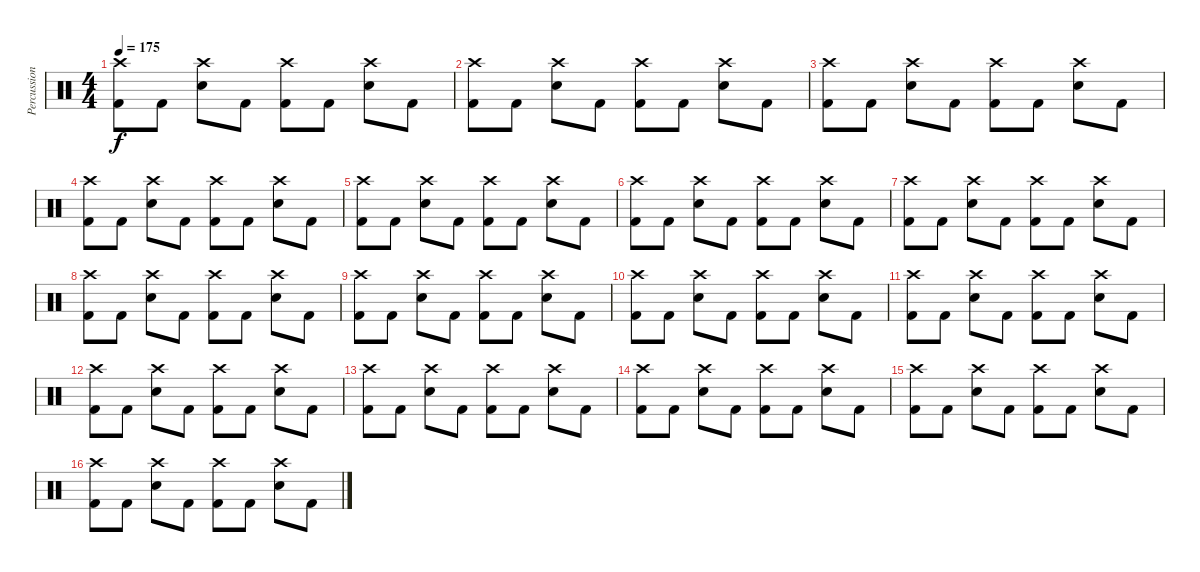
\track ("Percussion" "Percussion") {instrument percussion}
\staff {score}
\articulation defaults
\ts (4 4)
\tempo 175
\clef neutral
\ks c
("Kick (hit) 2" "Crash high (hit)").8{dy f} "Kick (hit) 2".8 ("Electric Snare (hit)" "Crash high (hit)").8 "Kick (hit) 2".8 ("Kick (hit) 2" "Crash high (hit)").8 "Kick (hit) 2".8 ("Electric Snare (hit)" "Crash high (hit)").8 "Kick (hit) 2".8 |
("Kick (hit) 2" "Crash high (hit)").8 "Kick (hit) 2".8 ("Electric Snare (hit)" "Crash high (hit)").8 "Kick (hit) 2".8 ("Kick (hit) 2" "Crash high (hit)").8 "Kick (hit) 2".8 ("Electric Snare (hit)" "Crash high (hit)").8 "Kick (hit) 2".8 |
("Kick (hit) 2" "Crash high (hit)").8 "Kick (hit) 2".8 ("Electric Snare (hit)" "Crash high (hit)").8 "Kick (hit) 2".8 ("Kick (hit) 2" "Crash high (hit)").8 "Kick (hit) 2".8 ("Electric Snare (hit)" "Crash high (hit)").8 "Kick (hit) 2".8 |
("Kick (hit) 2" "Crash high (hit)").8 "Kick (hit) 2".8 ("Electric Snare (hit)" "Crash high (hit)").8 "Kick (hit) 2".8 ("Kick (hit) 2" "Crash high (hit)").8 "Kick (hit) 2".8 ("Electric Snare (hit)" "Crash high (hit)").8 "Kick (hit) 2".8 |
("Kick (hit) 2" "Crash high (hit)").8 "Kick (hit) 2".8 ("Electric Snare (hit)" "Crash high (hit)").8 "Kick (hit) 2".8 ("Kick (hit) 2" "Crash high (hit)").8 "Kick (hit) 2".8 ("Electric Snare (hit)" "Crash high (hit)").8 "Kick (hit) 2".8 |
("Kick (hit) 2" "Crash high (hit)").8 "Kick (hit) 2".8 ("Electric Snare (hit)" "Crash high (hit)").8 "Kick (hit) 2".8 ("Kick (hit) 2" "Crash high (hit)").8 "Kick (hit) 2".8 ("Electric Snare (hit)" "Crash high (hit)").8 "Kick (hit) 2".8 |
("Kick (hit) 2" "Crash high (hit)").8 "Kick (hit) 2".8 ("Electric Snare (hit)" "Crash high (hit)").8 "Kick (hit) 2".8 ("Kick (hit) 2" "Crash high (hit)").8 "Kick (hit) 2".8 ("Electric Snare (hit)" "Crash high (hit)").8 "Kick (hit) 2".8 |
("Kick (hit) 2" "Crash high (hit)").8 "Kick (hit) 2".8 ("Electric Snare (hit)" "Crash high (hit)").8 "Kick (hit) 2".8 ("Kick (hit) 2" "Crash high (hit)").8 "Kick (hit) 2".8 ("Electric Snare (hit)" "Crash high (hit)").8 "Kick (hit) 2".8 |
("Kick (hit) 2" "Crash high (hit)").8 "Kick (hit) 2".8 ("Electric Snare (hit)" "Crash high (hit)").8 "Kick (hit) 2".8 ("Kick (hit) 2" "Crash high (hit)").8 "Kick (hit) 2".8 ("Electric Snare (hit)" "Crash high (hit)").8 "Kick (hit) 2".8 |
("Kick (hit) 2" "Crash high (hit)").8 "Kick (hit) 2".8 ("Electric Snare (hit)" "Crash high (hit)").8 "Kick (hit) 2".8 ("Kick (hit) 2" "Crash high (hit)").8 "Kick (hit) 2".8 ("Electric Snare (hit)" "Crash high (hit)").8 "Kick (hit) 2".8 |
("Kick (hit) 2" "Crash high (hit)").8 "Kick (hit) 2".8 ("Electric Snare (hit)" "Crash high (hit)").8 "Kick (hit) 2".8 ("Kick (hit) 2" "Crash high (hit)").8 "Kick (hit) 2".8 ("Electric Snare (hit)" "Crash high (hit)").8 "Kick (hit) 2".8 |
("Kick (hit) 2" "Crash high (hit)").8 "Kick (hit) 2".8 ("Electric Snare (hit)" "Crash high (hit)").8 "Kick (hit) 2".8 ("Kick (hit) 2" "Crash high (hit)").8 "Kick (hit) 2".8 ("Electric Snare (hit)" "Crash high (hit)").8 "Kick (hit) 2".8 |
("Kick (hit) 2" "Crash high (hit)").8 "Kick (hit) 2".8 ("Electric Snare (hit)" "Crash high (hit)").8 "Kick (hit) 2".8 ("Kick (hit) 2" "Crash high (hit)").8 "Kick (hit) 2".8 ("Electric Snare (hit)" "Crash high (hit)").8 "Kick (hit) 2".8 |
("Kick (hit) 2" "Crash high (hit)").8 "Kick (hit) 2".8 ("Electric Snare (hit)" "Crash high (hit)").8 "Kick (hit) 2".8 ("Kick (hit) 2" "Crash high (hit)").8 "Kick (hit) 2".8 ("Electric Snare (hit)" "Crash high (hit)").8 "Kick (hit) 2".8 |
("Kick (hit) 2" "Crash high (hit)").8 "Kick (hit) 2".8 ("Electric Snare (hit)" "Crash high (hit)").8 "Kick (hit) 2".8 ("Kick (hit) 2" "Crash high (hit)").8 "Kick (hit) 2".8 ("Electric Snare (hit)" "Crash high (hit)").8 "Kick (hit) 2".8 |
("Kick (hit) 2" "Crash high (hit)").8 "Kick (hit) 2".8 ("Electric Snare (hit)" "Crash high (hit)").8 "Kick (hit) 2".8 ("Kick (hit) 2" "Crash high (hit)").8 "Kick (hit) 2".8 ("Electric Snare (hit)" "Crash high (hit)").8 "Kick (hit) 2".8
